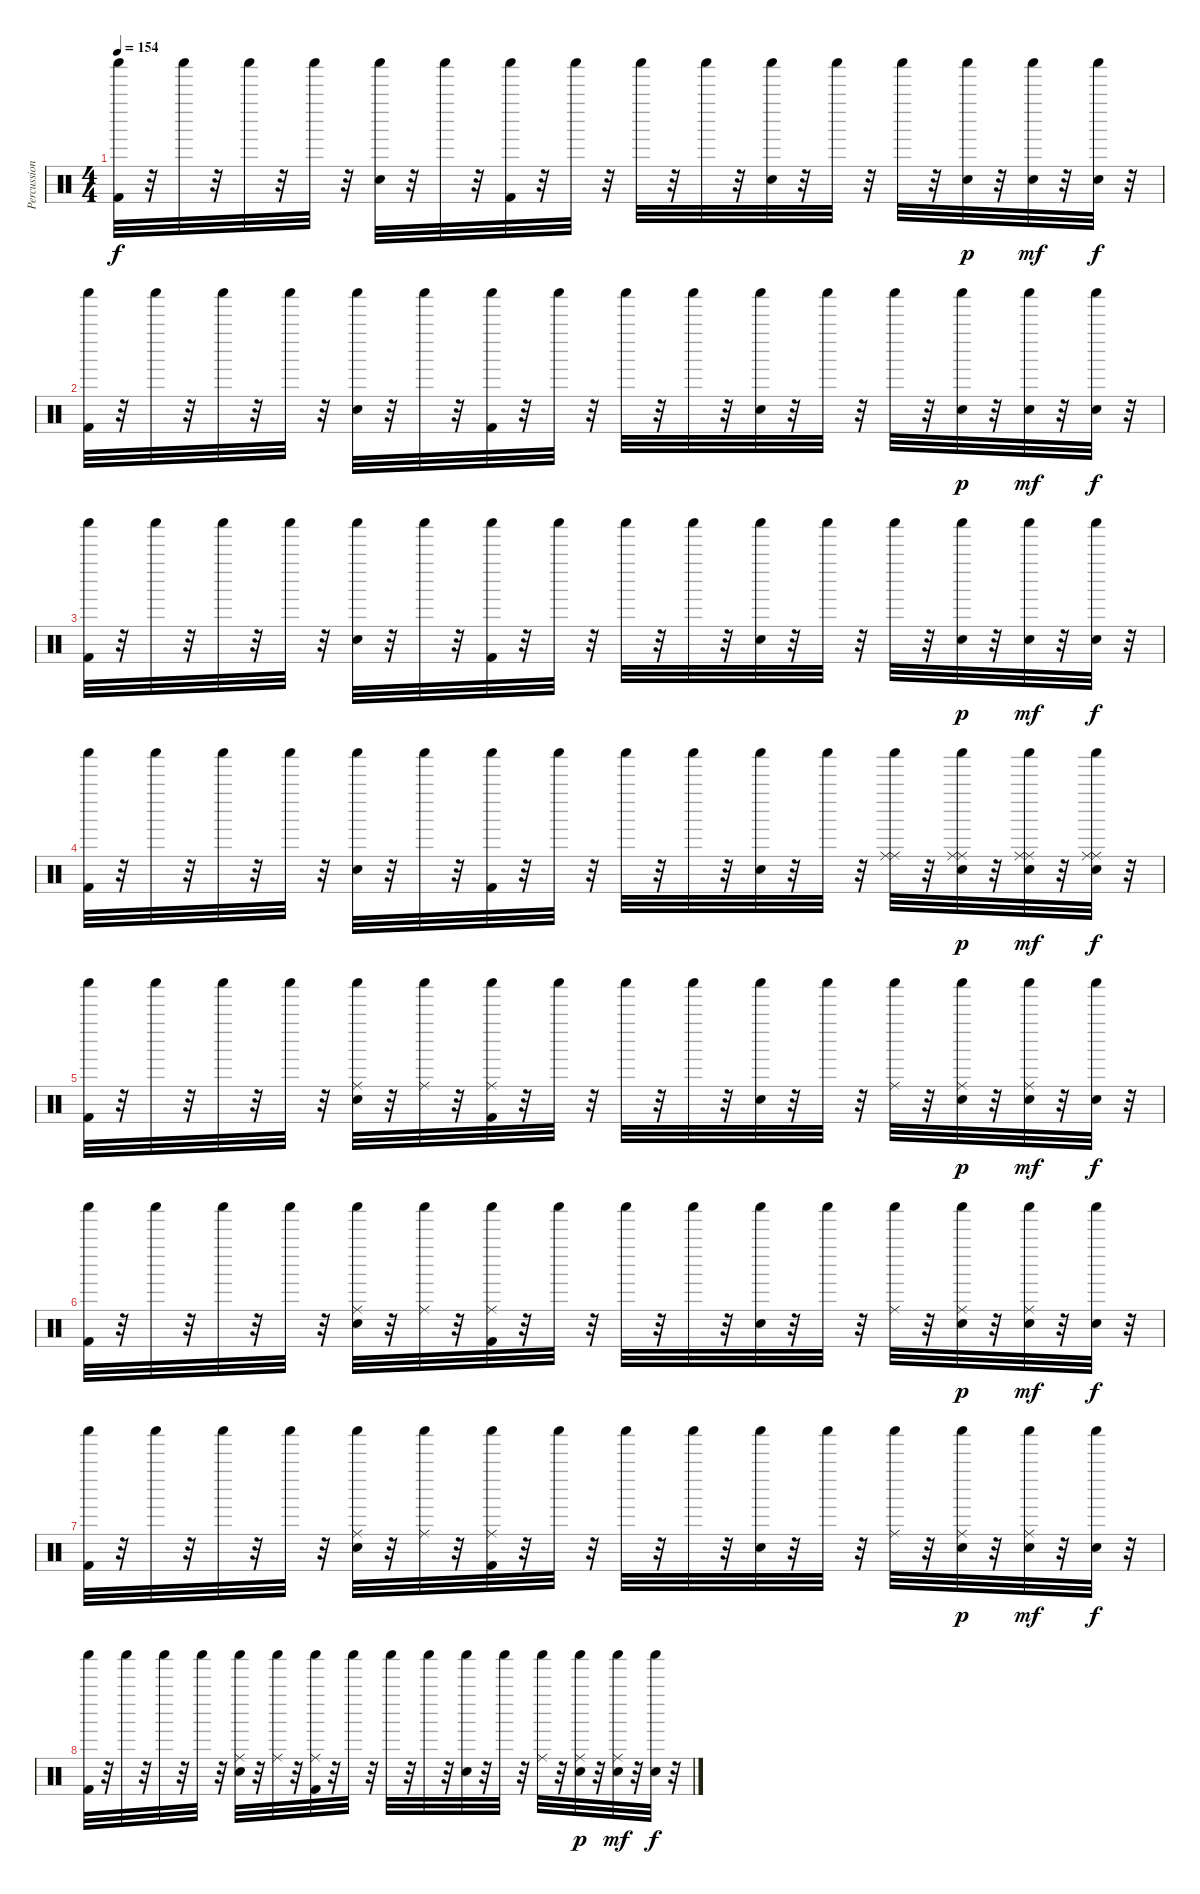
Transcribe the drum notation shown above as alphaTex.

\track ("Percussion" "Percussion") {instrument percussion}
\staff {score}
\articulation defaults
\ts (4 4)
\tempo 154
\clef neutral
\ks c
("Shaker (hit)" "Kick (hit) 2").32{dy f} r.32 "Shaker (hit)".32 r.32 "Shaker (hit)".32 r.32 "Shaker (hit)".32 r.32 ("Shaker (hit)" "Snare (hit) 2").32 r.32 "Shaker (hit)".32 r.32 ("Shaker (hit)" "Kick (hit) 2").32 r.32 "Shaker (hit)".32 r.32 "Shaker (hit)".32 r.32 "Shaker (hit)".32 r.32 ("Shaker (hit)" "Snare (hit) 2").32 r.32 "Shaker (hit)".32 r.32 "Shaker (hit)".32 r.32 ("Shaker (hit)" "Snare (hit) 2").32{dy p} r.32 ("Shaker (hit)" "Snare (hit) 2").32{dy mf} r.32 ("Shaker (hit)" "Snare (hit) 2").32{dy f} r.32 |
("Shaker (hit)" "Kick (hit) 2").32 r.32 "Shaker (hit)".32 r.32 "Shaker (hit)".32 r.32 "Shaker (hit)".32 r.32 ("Shaker (hit)" "Snare (hit) 2").32 r.32 "Shaker (hit)".32 r.32 ("Shaker (hit)" "Kick (hit) 2").32 r.32 "Shaker (hit)".32 r.32 "Shaker (hit)".32 r.32 "Shaker (hit)".32 r.32 ("Shaker (hit)" "Snare (hit) 2").32 r.32 "Shaker (hit)".32 r.32 "Shaker (hit)".32 r.32 ("Shaker (hit)" "Snare (hit) 2").32{dy p} r.32 ("Shaker (hit)" "Snare (hit) 2").32{dy mf} r.32 ("Shaker (hit)" "Snare (hit) 2").32{dy f} r.32 |
("Shaker (hit)" "Kick (hit) 2").32 r.32 "Shaker (hit)".32 r.32 "Shaker (hit)".32 r.32 "Shaker (hit)".32 r.32 ("Shaker (hit)" "Snare (hit) 2").32 r.32 "Shaker (hit)".32 r.32 ("Shaker (hit)" "Kick (hit) 2").32 r.32 "Shaker (hit)".32 r.32 "Shaker (hit)".32 r.32 "Shaker (hit)".32 r.32 ("Shaker (hit)" "Snare (hit) 2").32 r.32 "Shaker (hit)".32 r.32 "Shaker (hit)".32 r.32 ("Shaker (hit)" "Snare (hit) 2").32{dy p} r.32 ("Shaker (hit)" "Snare (hit) 2").32{dy mf} r.32 ("Shaker (hit)" "Snare (hit) 2").32{dy f} r.32 |
("Shaker (hit)" "Kick (hit) 2").32 r.32 "Shaker (hit)".32 r.32 "Shaker (hit)".32 r.32 "Shaker (hit)".32 r.32 ("Shaker (hit)" "Snare (hit) 2").32 r.32 "Shaker (hit)".32 r.32 ("Shaker (hit)" "Kick (hit) 2").32 r.32 "Shaker (hit)".32 r.32 "Shaker (hit)".32 r.32 "Shaker (hit)".32 r.32 ("Shaker (hit)" "Snare (hit) 2").32 r.32 "Shaker (hit)".32 r.32 ("Shaker (hit)" "Ride (middle)" "Ride (middle)").32 r.32 ("Shaker (hit)" "Snare (hit) 2" "Ride (middle)" "Ride (middle)").32{dy p} r.32 ("Shaker (hit)" "Snare (hit) 2" "Ride (middle)" "Ride (middle)").32{dy mf} r.32 ("Shaker (hit)" "Snare (hit) 2" "Ride (middle)" "Ride (middle)").32{dy f} r.32 |
("Shaker (hit)" "Kick (hit) 2").32 r.32 "Shaker (hit)".32 r.32 "Shaker (hit)".32 r.32 "Shaker (hit)".32 r.32 ("Shaker (hit)" "Snare (hit) 2" "Ride (middle)").32 r.32 ("Shaker (hit)" "Ride (middle)").32 r.32 ("Shaker (hit)" "Kick (hit) 2" "Ride (middle)").32 r.32 "Shaker (hit)".32 r.32 "Shaker (hit)".32 r.32 "Shaker (hit)".32 r.32 ("Shaker (hit)" "Snare (hit) 2").32 r.32 "Shaker (hit)".32 r.32 ("Shaker (hit)" "Ride (middle)").32 r.32 ("Shaker (hit)" "Snare (hit) 2" "Ride (middle)").32{dy p} r.32 ("Shaker (hit)" "Snare (hit) 2" "Ride (middle)").32{dy mf} r.32 ("Shaker (hit)" "Snare (hit) 2").32{dy f} r.32 |
("Shaker (hit)" "Kick (hit) 2").32 r.32 "Shaker (hit)".32 r.32 "Shaker (hit)".32 r.32 "Shaker (hit)".32 r.32 ("Shaker (hit)" "Snare (hit) 2" "Ride (middle)").32 r.32 ("Shaker (hit)" "Ride (middle)").32 r.32 ("Shaker (hit)" "Kick (hit) 2" "Ride (middle)").32 r.32 "Shaker (hit)".32 r.32 "Shaker (hit)".32 r.32 "Shaker (hit)".32 r.32 ("Shaker (hit)" "Snare (hit) 2").32 r.32 "Shaker (hit)".32 r.32 ("Shaker (hit)" "Ride (middle)").32 r.32 ("Shaker (hit)" "Snare (hit) 2" "Ride (middle)").32{dy p} r.32 ("Shaker (hit)" "Snare (hit) 2" "Ride (middle)").32{dy mf} r.32 ("Shaker (hit)" "Snare (hit) 2").32{dy f} r.32 |
("Shaker (hit)" "Kick (hit) 2").32 r.32 "Shaker (hit)".32 r.32 "Shaker (hit)".32 r.32 "Shaker (hit)".32 r.32 ("Shaker (hit)" "Snare (hit) 2" "Ride (middle)").32 r.32 ("Shaker (hit)" "Ride (middle)").32 r.32 ("Shaker (hit)" "Kick (hit) 2" "Ride (middle)").32 r.32 "Shaker (hit)".32 r.32 "Shaker (hit)".32 r.32 "Shaker (hit)".32 r.32 ("Shaker (hit)" "Snare (hit) 2").32 r.32 "Shaker (hit)".32 r.32 ("Shaker (hit)" "Ride (middle)").32 r.32 ("Shaker (hit)" "Snare (hit) 2" "Ride (middle)").32{dy p} r.32 ("Shaker (hit)" "Snare (hit) 2" "Ride (middle)").32{dy mf} r.32 ("Shaker (hit)" "Snare (hit) 2").32{dy f} r.32 |
("Shaker (hit)" "Kick (hit) 2").32 r.32 "Shaker (hit)".32 r.32 "Shaker (hit)".32 r.32 "Shaker (hit)".32 r.32 ("Shaker (hit)" "Snare (hit) 2" "Ride (middle)").32 r.32 ("Shaker (hit)" "Ride (middle)").32 r.32 ("Shaker (hit)" "Kick (hit) 2" "Ride (middle)").32 r.32 "Shaker (hit)".32 r.32 "Shaker (hit)".32 r.32 "Shaker (hit)".32 r.32 ("Shaker (hit)" "Snare (hit) 2").32 r.32 "Shaker (hit)".32 r.32 ("Shaker (hit)" "Ride (middle)").32 r.32 ("Shaker (hit)" "Snare (hit) 2" "Ride (middle)").32{dy p} r.32 ("Shaker (hit)" "Snare (hit) 2" "Ride (middle)").32{dy mf} r.32 ("Shaker (hit)" "Snare (hit) 2").32{dy f} r.32
